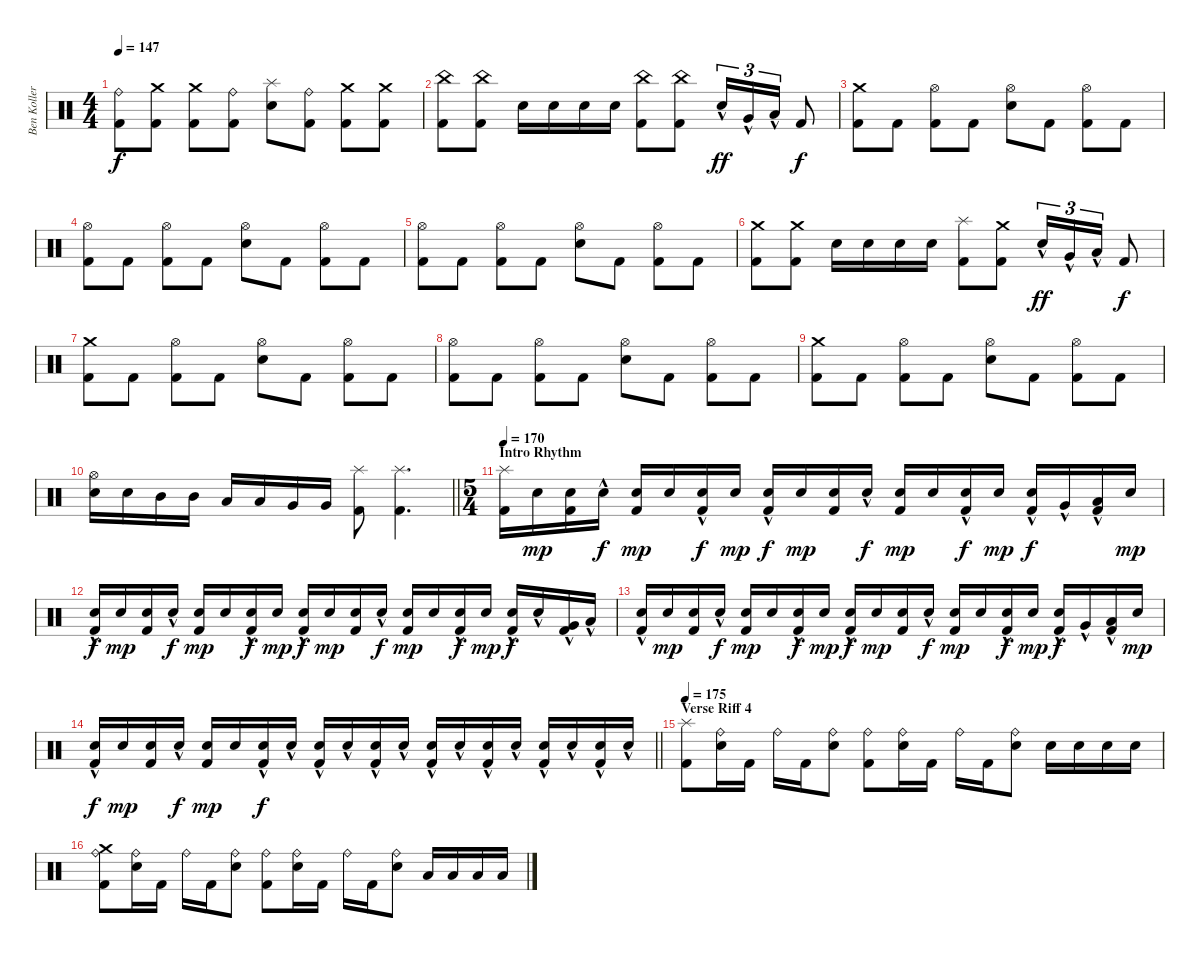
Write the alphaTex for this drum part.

\track ("Ben Koller" "Ben Koller") {instrument percussion}
\staff {score}
\articulation defaults
\ts (4 4)
\tempo 147
\clef neutral
\ks c
("Ride (bell)" "Kick (hit) 2").8{dy f} ("Crash medium (hit)" "Kick (hit) 2").8 ("Crash medium (hit)" "Kick (hit) 2").8 ("Ride (bell)" "Kick (hit) 2").8 ("Splash (hit)" "Electric Snare (hit)").8 ("Ride (bell)" "Kick (hit) 2").8 ("Crash medium (hit)" "Kick (hit) 2").8 ("Crash medium (hit)" "Kick (hit) 2").8 |
("China (hit)" "Kick (hit) 2").8 ("China (hit)" "Kick (hit) 2").8 "Electric Snare (hit)".16 "Electric Snare (hit)".16 "Electric Snare (hit)".16 "Electric Snare (hit)".16 ("China (hit)" "Kick (hit) 2").8 ("China (hit)" "Kick (hit) 2").8 "Electric Snare (hit)"{hac}.16{tu (3 2) dy ff} "Very Low Tom (hit)"{hac}.16{tu (3 2)} "Low Tom (hit)"{hac}.16{tu (3 2)} "Kick (hit) 2".8{dy f} |
("Crash medium (hit)" "Kick (hit) 2").8 "Kick (hit) 2".8 ("Hi-Hat (open)" "Kick (hit) 2").8 "Kick (hit) 2".8 ("Hi-Hat (open)" "Electric Snare (hit)").8 "Kick (hit) 2".8 ("Hi-Hat (open)" "Kick (hit) 2").8 "Kick (hit) 2".8 |
("Hi-Hat (open)" "Kick (hit) 2").8 "Kick (hit) 2".8 ("Hi-Hat (open)" "Kick (hit) 2").8 "Kick (hit) 2".8 ("Hi-Hat (open)" "Electric Snare (hit)").8 "Kick (hit) 2".8 ("Hi-Hat (open)" "Kick (hit) 2").8 "Kick (hit) 2".8 |
("Hi-Hat (open)" "Kick (hit) 2").8 "Kick (hit) 2".8 ("Hi-Hat (open)" "Kick (hit) 2").8 "Kick (hit) 2".8 ("Hi-Hat (open)" "Electric Snare (hit)").8 "Kick (hit) 2".8 ("Hi-Hat (open)" "Kick (hit) 2").8 "Kick (hit) 2".8 |
("Crash medium (hit)" "Kick (hit) 2").8 ("Crash medium (hit)" "Kick (hit) 2").8 "Electric Snare (hit)".16 "Electric Snare (hit)".16 "Electric Snare (hit)".16 "Electric Snare (hit)".16 ("Splash (hit)" "Kick (hit) 2").8 ("Crash medium (hit)" "Kick (hit) 2").8 "Electric Snare (hit)"{hac}.16{tu (3 2) dy ff} "Very Low Tom (hit)"{hac}.16{tu (3 2)} "Low Tom (hit)"{hac}.16{tu (3 2)} "Kick (hit) 2".8{dy f} |
("Crash medium (hit)" "Kick (hit) 2").8 "Kick (hit) 2".8 ("Hi-Hat (open)" "Kick (hit) 2").8 "Kick (hit) 2".8 ("Hi-Hat (open)" "Electric Snare (hit)").8 "Kick (hit) 2".8 ("Hi-Hat (open)" "Kick (hit) 2").8 "Kick (hit) 2".8 |
("Hi-Hat (open)" "Kick (hit) 2").8 "Kick (hit) 2".8 ("Hi-Hat (open)" "Kick (hit) 2").8 "Kick (hit) 2".8 ("Hi-Hat (open)" "Electric Snare (hit)").8 "Kick (hit) 2".8 ("Hi-Hat (open)" "Kick (hit) 2").8 "Kick (hit) 2".8 |
("Crash medium (hit)" "Kick (hit) 2").8 "Kick (hit) 2".8 ("Hi-Hat (open)" "Kick (hit) 2").8 "Kick (hit) 2".8 ("Hi-Hat (open)" "Electric Snare (hit)").8 "Kick (hit) 2".8 ("Hi-Hat (open)" "Kick (hit) 2").8 "Kick (hit) 2".8 |
\barLineRight lightlight
("Hi-Hat (open)" "Electric Snare (hit)").16 "Electric Snare (hit)".16 "Mid Tom (hit)".16 "Mid Tom (hit)".16 "Low Tom (hit)".16 "Low Tom (hit)".16 "Very Low Tom (hit)".16 "Very Low Tom (hit)".16 ("Splash (hit)" "Kick (hit) 2").8 ("Splash (hit)" "Kick (hit) 2").4{d} |
\ts (5 4)
\section ("" "Intro Rhythm")
\tempo 170
("Splash (hit)" "Kick (hit) 2").16 "Electric Snare (hit)".16{dy mp} ("Electric Snare (hit)" "Kick (hit) 2").16 "Electric Snare (hit)"{hac}.16{dy f} ("Electric Snare (hit)" "Kick (hit) 2").16{dy mp} "Electric Snare (hit)".16 ("Electric Snare (hit)"{hac} "Kick (hit) 2").16{dy f} "Electric Snare (hit)".16{dy mp} ("Electric Snare (hit)"{hac} "Kick (hit) 2").16{dy f} "Electric Snare (hit)".16{dy mp} ("Electric Snare (hit)" "Kick (hit) 2").16 "Electric Snare (hit)"{hac}.16{dy f} ("Electric Snare (hit)" "Kick (hit) 2").16{dy mp} "Electric Snare (hit)".16 ("Electric Snare (hit)"{hac} "Kick (hit) 2").16{dy f} "Electric Snare (hit)".16{dy mp} ("Electric Snare (hit)"{hac} "Kick (hit) 2").16{dy f} "Very Low Tom (hit)"{hac}.16 ("Low Floor Tom (hit)"{hac} "Kick (hit) 2").16 "Electric Snare (hit)".16{dy mp} |
("Electric Snare (hit)"{hac} "Kick (hit) 2").16{dy f} "Electric Snare (hit)".16{dy mp} ("Electric Snare (hit)" "Kick (hit) 2").16 "Electric Snare (hit)"{hac}.16{dy f} ("Electric Snare (hit)" "Kick (hit) 2").16{dy mp} "Electric Snare (hit)".16 ("Electric Snare (hit)"{hac} "Kick (hit) 2").16{dy f} "Electric Snare (hit)".16{dy mp} ("Electric Snare (hit)"{hac} "Kick (hit) 2").16{dy f} "Electric Snare (hit)".16{dy mp} ("Electric Snare (hit)" "Kick (hit) 2").16 "Electric Snare (hit)"{hac}.16{dy f} ("Electric Snare (hit)" "Kick (hit) 2").16{dy mp} "Electric Snare (hit)".16 ("Electric Snare (hit)"{hac} "Kick (hit) 2").16{dy f} "Electric Snare (hit)".16{dy mp} ("Electric Snare (hit)"{hac} "Kick (hit) 2").16{dy f} "Electric Snare (hit)"{hac}.16 ("Very Low Tom (hit)"{hac} "Kick (hit) 2").16 "Low Floor Tom (hit)"{hac}.16 |
("Electric Snare (hit)"{hac} "Kick (hit) 2").16 "Electric Snare (hit)".16{dy mp} ("Electric Snare (hit)" "Kick (hit) 2").16 "Electric Snare (hit)"{hac}.16{dy f} ("Electric Snare (hit)" "Kick (hit) 2").16{dy mp} "Electric Snare (hit)".16 ("Electric Snare (hit)"{hac} "Kick (hit) 2").16{dy f} "Electric Snare (hit)".16{dy mp} ("Electric Snare (hit)"{hac} "Kick (hit) 2").16{dy f} "Electric Snare (hit)".16{dy mp} ("Electric Snare (hit)" "Kick (hit) 2").16 "Electric Snare (hit)"{hac}.16{dy f} ("Electric Snare (hit)" "Kick (hit) 2").16{dy mp} "Electric Snare (hit)".16 ("Electric Snare (hit)"{hac} "Kick (hit) 2").16{dy f} "Electric Snare (hit)".16{dy mp} ("Electric Snare (hit)"{hac} "Kick (hit) 2").16{dy f} "Very Low Tom (hit)"{hac}.16 ("Low Floor Tom (hit)"{hac} "Kick (hit) 2").16 "Electric Snare (hit)".16{dy mp} |
\barLineRight lightlight
("Electric Snare (hit)"{hac} "Kick (hit) 2").16{dy f} "Electric Snare (hit)".16{dy mp} ("Electric Snare (hit)" "Kick (hit) 2").16 "Electric Snare (hit)"{hac}.16{dy f} ("Electric Snare (hit)" "Kick (hit) 2").16{dy mp} "Electric Snare (hit)".16 ("Electric Snare (hit)"{hac} "Kick (hit) 2").16{dy f} "Electric Snare (hit)"{hac}.16 ("Electric Snare (hit)"{hac} "Kick (hit) 2").16 "Electric Snare (hit)"{hac}.16 ("Electric Snare (hit)"{hac} "Kick (hit) 2").16 "Electric Snare (hit)"{hac}.16 ("Electric Snare (hit)"{hac} "Kick (hit) 2").16 "Electric Snare (hit)"{hac}.16 ("Electric Snare (hit)"{hac} "Kick (hit) 2").16 "Electric Snare (hit)"{hac}.16 ("Electric Snare (hit)"{hac} "Kick (hit) 2").16 "Electric Snare (hit)"{hac}.16 ("Electric Snare (hit)"{hac} "Kick (hit) 2").16 "Electric Snare (hit)"{hac}.16 |
\section ("" "Verse Riff 4")
\tempo 175
("Splash (hit)" "Kick (hit) 2").8 ("Ride (bell)" "Electric Snare (hit)").16 "Kick (hit) 2".16 "Ride (bell)".16 "Kick (hit) 2".16 ("Ride (bell)" "Electric Snare (hit)").8 ("Ride (bell)" "Kick (hit) 2").8 ("Ride (bell)" "Electric Snare (hit)").16 "Kick (hit) 2".16 "Ride (bell)".16 "Kick (hit) 2".16 ("Ride (bell)" "Electric Snare (hit)").8 "Electric Snare (hit)".16 "Electric Snare (hit)".16 "Electric Snare (hit)".16 "Electric Snare (hit)".16 |
("Crash medium (hit)" "Ride (bell)" "Kick (hit) 2").8 ("Ride (bell)" "Electric Snare (hit)").16 "Kick (hit) 2".16 "Ride (bell)".16 "Kick (hit) 2".16 ("Ride (bell)" "Electric Snare (hit)").8 ("Ride (bell)" "Kick (hit) 2").8 ("Ride (bell)" "Electric Snare (hit)").16 "Kick (hit) 2".16 "Ride (bell)".16 "Kick (hit) 2".16 ("Ride (bell)" "Electric Snare (hit)").8 "Low Tom (hit)".16 "Low Tom (hit)".16 "Low Tom (hit)".16 "Low Tom (hit)".16
